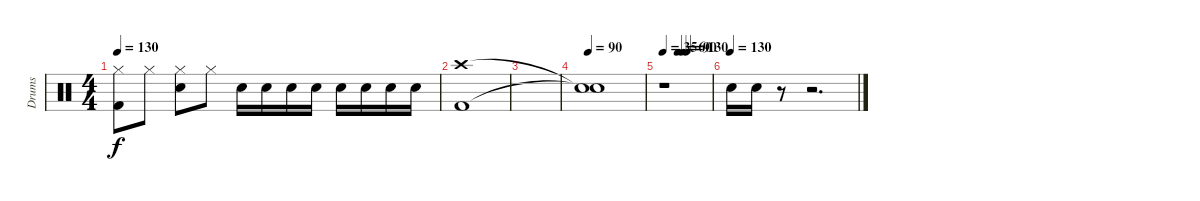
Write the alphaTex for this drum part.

\track ("Drums" "Drums") {instrument percussion}
\staff {score}
\articulation defaults
\ts (4 4)
\tempo 130
\clef neutral
\ks c
("Hi-Hat (closed)" "Kick (hit) 2").8{dy f} "Hi-Hat (closed)".8 ("Hi-Hat (closed)" "Electric Snare (hit)").8 "Hi-Hat (closed)".8 "Electric Snare (hit)".16 "Electric Snare (hit)".16 "Electric Snare (hit)".16 "Electric Snare (hit)".16 "Electric Snare (hit)".16 "Electric Snare (hit)".16 "Electric Snare (hit)".16 "Electric Snare (hit)".16 |
("Crash high (hit)" "Kick (hit) 2").1 |
|
\tempo 90
("Snare (hit)"{t} "Snare (hit)"{t}).1 |
\tempo 35
\tempo (60 0.3125)
\tempo (90 0.40625)
\tempo (130 0.5)
r.1 |
\tempo (130)
"Electric Snare (hit)".16 "Electric Snare (hit)".16 r.8 r.2{d}
